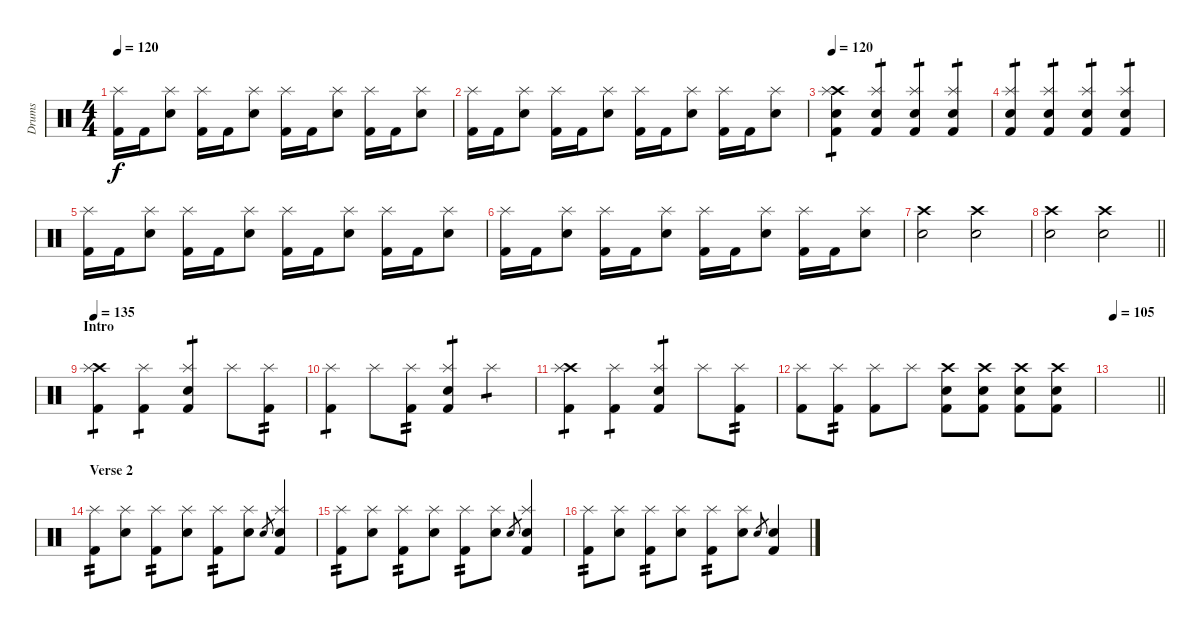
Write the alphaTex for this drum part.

\track ("Drums" "Drums") {instrument percussion}
\staff {score}
\articulation defaults
\ts (4 4)
\tempo 120
\clef neutral
\ks c
("Kick (hit) 2" "Splash (hit)").16{dy f} "Kick (hit) 2".16 ("Electric Snare (hit)" "Splash (hit)").8 ("Kick (hit) 2" "Splash (hit)").16 "Kick (hit) 2".16 ("Electric Snare (hit)" "Splash (hit)").8 ("Kick (hit) 2" "Splash (hit)").16 "Kick (hit) 2".16 ("Electric Snare (hit)" "Splash (hit)").8 ("Kick (hit) 2" "Splash (hit)").16 "Kick (hit) 2".16 ("Electric Snare (hit)" "Splash (hit)").8 |
("Kick (hit) 2" "Splash (hit)").16 "Kick (hit) 2".16 ("Electric Snare (hit)" "Splash (hit)").8 ("Kick (hit) 2" "Splash (hit)").16 "Kick (hit) 2".16 ("Electric Snare (hit)" "Splash (hit)").8 ("Kick (hit) 2" "Splash (hit)").16 "Kick (hit) 2".16 ("Electric Snare (hit)" "Splash (hit)").8 ("Kick (hit) 2" "Splash (hit)").16 "Kick (hit) 2".16 ("Electric Snare (hit)" "Splash (hit)").8 |
\tempo 120
("Kick (hit) 2" "Electric Snare (hit)" "Crash high (hit)" "Splash (hit)").4{tp 1} ("Kick (hit) 2" "Electric Snare (hit)" "Splash (hit)").4{tp 1} ("Kick (hit) 2" "Electric Snare (hit)" "Splash (hit)").4{tp 1} ("Kick (hit) 2" "Electric Snare (hit)" "Splash (hit)").4{tp 1} |
("Kick (hit) 2" "Electric Snare (hit)" "Splash (hit)").4{tp 1} ("Kick (hit) 2" "Electric Snare (hit)" "Splash (hit)").4{tp 1} ("Kick (hit) 2" "Electric Snare (hit)" "Splash (hit)").4{tp 1} ("Kick (hit) 2" "Electric Snare (hit)" "Splash (hit)").4{tp 1} |
("Kick (hit) 2" "Splash (hit)").16 "Kick (hit) 2".16 ("Electric Snare (hit)" "Splash (hit)").8 ("Kick (hit) 2" "Splash (hit)").16 "Kick (hit) 2".16 ("Electric Snare (hit)" "Splash (hit)").8 ("Kick (hit) 2" "Splash (hit)").16 "Kick (hit) 2".16 ("Electric Snare (hit)" "Splash (hit)").8 ("Kick (hit) 2" "Splash (hit)").16 "Kick (hit) 2".16 ("Electric Snare (hit)" "Splash (hit)").8 |
("Kick (hit) 2" "Splash (hit)").16 "Kick (hit) 2".16 ("Electric Snare (hit)" "Splash (hit)").8 ("Kick (hit) 2" "Splash (hit)").16 "Kick (hit) 2".16 ("Electric Snare (hit)" "Splash (hit)").8 ("Kick (hit) 2" "Splash (hit)").16 "Kick (hit) 2".16 ("Electric Snare (hit)" "Splash (hit)").8 ("Kick (hit) 2" "Splash (hit)").16 "Kick (hit) 2".16 ("Electric Snare (hit)" "Splash (hit)").8 |
("Electric Snare (hit)" "Crash high (hit)").2 ("Electric Snare (hit)" "Crash high (hit)").2 |
\barLineRight lightlight
("Electric Snare (hit)" "Crash high (hit)").2 ("Electric Snare (hit)" "Crash high (hit)").2 |
\section ("" "Intro")
\tempo 135
("Kick (hit) 2" "Crash high (hit)" "Splash (hit)").4{tp 1} ("Kick (hit) 2" "Splash (hit)").4{tp 1} ("Kick (hit) 2" "Electric Snare (hit)" "Splash (hit)").4{tp 1} "Splash (hit)".8 ("Kick (hit) 2" "Splash (hit)").8{tp 2} |
("Kick (hit) 2" "Splash (hit)").4{tp 1} "Splash (hit)".8 ("Kick (hit) 2" "Splash (hit)").8{tp 2} ("Kick (hit) 2" "Electric Snare (hit)" "Splash (hit)").4{tp 1} "Splash (hit)".4{tp 1} |
("Kick (hit) 2" "Crash high (hit)" "Splash (hit)").4{tp 1} ("Kick (hit) 2" "Splash (hit)").4{tp 1} ("Kick (hit) 2" "Electric Snare (hit)" "Splash (hit)").4{tp 1} "Splash (hit)".8 ("Kick (hit) 2" "Splash (hit)").8{tp 2} |
("Kick (hit) 2" "Splash (hit)").8 ("Kick (hit) 2" "Splash (hit)").8{tp 2} ("Kick (hit) 2" "Splash (hit)").8 "Splash (hit)".8 ("Kick (hit) 2" "Electric Snare (hit)" "Crash high (hit)").8 ("Kick (hit) 2" "Electric Snare (hit)" "Crash high (hit)").8 ("Kick (hit) 2" "Electric Snare (hit)" "Crash high (hit)").8 ("Kick (hit) 2" "Electric Snare (hit)" "Crash high (hit)").8 |
\tempo 105
\barLineRight lightlight
|
\section ("" "Verse 2")
("Kick (hit) 2" "Splash (hit)").8{tp 2} ("Electric Snare (hit)" "Splash (hit)").8 ("Kick (hit) 2" "Splash (hit)").8{tp 2} ("Electric Snare (hit)" "Splash (hit)").8 ("Kick (hit) 2" "Splash (hit)").8{tp 2} ("Electric Snare (hit)" "Splash (hit)").8 "Electric Snare (hit)".8{gr} ("Kick (hit) 2" "Electric Snare (hit)" "Splash (hit)").4 |
("Kick (hit) 2" "Splash (hit)").8{tp 2} ("Electric Snare (hit)" "Splash (hit)").8 ("Kick (hit) 2" "Splash (hit)").8{tp 2} ("Electric Snare (hit)" "Splash (hit)").8 ("Kick (hit) 2" "Splash (hit)").8{tp 2} ("Electric Snare (hit)" "Splash (hit)").8 "Electric Snare (hit)".8{gr} ("Kick (hit) 2" "Electric Snare (hit)" "Splash (hit)").4 |
("Kick (hit) 2" "Splash (hit)").8{tp 2} ("Electric Snare (hit)" "Splash (hit)").8 ("Kick (hit) 2" "Splash (hit)").8{tp 2} ("Electric Snare (hit)" "Splash (hit)").8 ("Kick (hit) 2" "Splash (hit)").8{tp 2} ("Electric Snare (hit)" "Splash (hit)").8 "Electric Snare (hit)".8{gr} ("Kick (hit) 2" "Electric Snare (hit)").4
